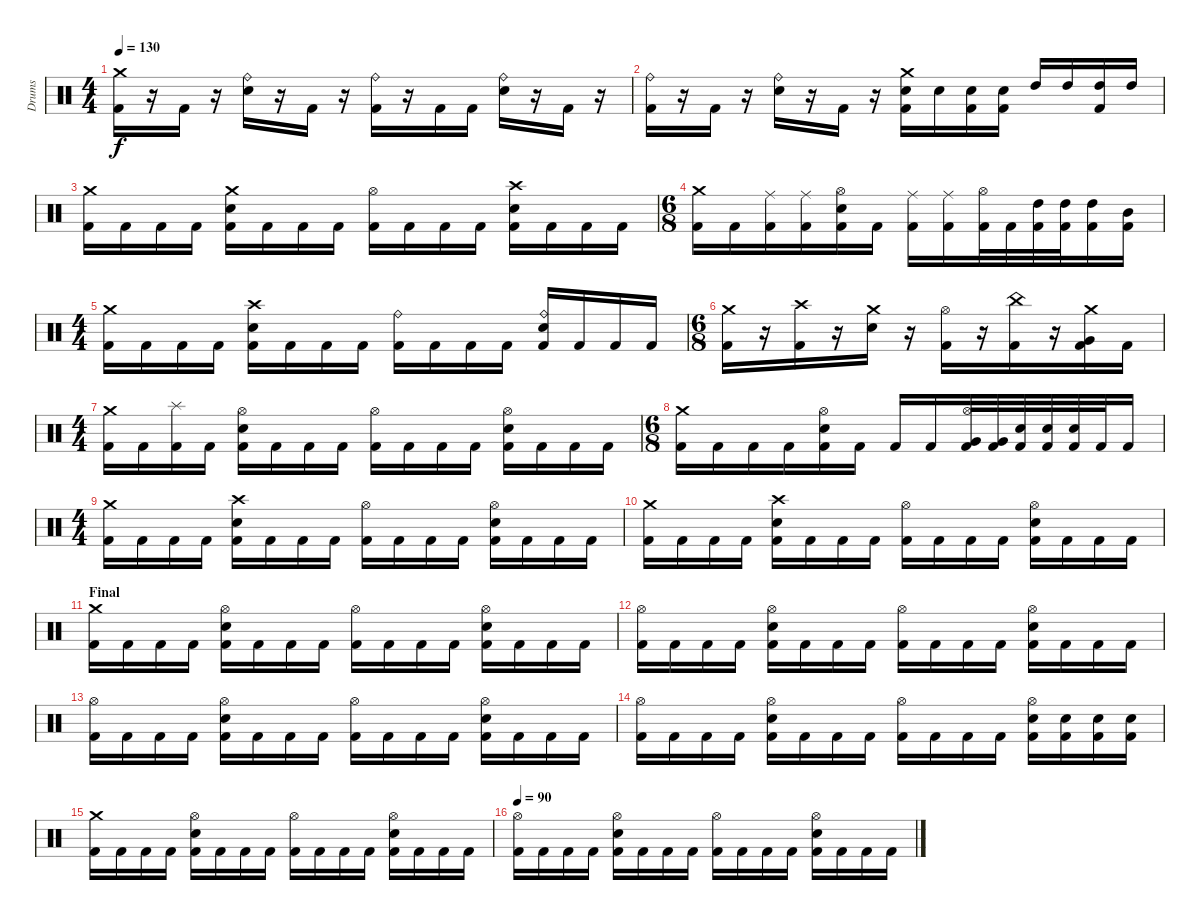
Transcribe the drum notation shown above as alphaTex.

\track ("Drums" "Drums") {instrument percussion}
\staff {score}
\articulation defaults
\ts (4 4)
\tempo 130
\clef neutral
\ks c
("Crash medium (hit)" "Kick (hit) 2").16{dy f} r.16 "Kick (hit) 2".16 r.16 ("Ride (bell)" "Electric Snare (hit)").16 r.16 "Kick (hit) 2".16 r.16 ("Ride (bell)" "Kick (hit) 2").16 r.16 "Kick (hit) 2".16 "Kick (hit) 2".16 ("Ride (bell)" "Electric Snare (hit)").16 r.16 "Kick (hit) 2".16 r.16 |
("Ride (bell)" "Kick (hit) 2").16 r.16 "Kick (hit) 2".16 r.16 ("Ride (bell)" "Electric Snare (hit)").16 r.16 "Kick (hit) 2".16 r.16 ("Crash medium (hit)" "Electric Snare (hit)" "Kick (hit) 2").16 "Electric Snare (hit)".16 ("Electric Snare (hit)" "Kick (hit) 2").16 ("Electric Snare (hit)" "Kick (hit) 2").16 "High Tom (hit)".16 "High Tom (hit)".16 ("High Tom (hit)" "Kick (hit) 2").16 "High Tom (hit)".16 |
("Crash medium (hit)" "Kick (hit) 2").16 "Kick (hit) 2".16 "Kick (hit) 2".16 "Kick (hit) 2".16 ("Crash medium (hit)" "Electric Snare (hit)" "Kick (hit) 2").16 "Kick (hit) 2".16 "Kick (hit) 2".16 "Kick (hit) 2".16 ("Hi-Hat (open)" "Kick (hit) 2").16 "Kick (hit) 2".16 "Kick (hit) 2".16 "Kick (hit) 2".16 ("Crash high (hit)" "Electric Snare (hit)" "Kick (hit) 2").16 "Kick (hit) 2".16 "Kick (hit) 2".16 "Kick (hit) 2".16 |
\ts (6 8)
("Crash medium (hit)" "Kick (hit) 2").16 "Kick (hit) 2".16 ("Ride (middle)" "Kick (hit) 2").16 ("Ride (middle)" "Kick (hit) 2").16 ("Hi-Hat (open)" "Electric Snare (hit)" "Kick (hit) 2").16 "Kick (hit) 2".16 ("Ride (middle)" "Kick (hit) 2").16 ("Ride (middle)" "Kick (hit) 2").16 ("Hi-Hat (open)" "Kick (hit) 2").32 "Kick (hit) 2".32 ("High Tom (hit)" "Kick (hit) 2").32 ("High Tom (hit)" "Kick (hit) 2").32 ("High Tom (hit)" "Kick (hit) 2").16 ("Mid Tom (hit)" "Kick (hit) 2").16 |
\ts (4 4)
("Crash medium (hit)" "Kick (hit) 2").16 "Kick (hit) 2".16 "Kick (hit) 2".16 "Kick (hit) 2".16 ("Crash high (hit)" "Electric Snare (hit)" "Kick (hit) 2").16 "Kick (hit) 2".16 "Kick (hit) 2".16 "Kick (hit) 2".16 ("Ride (bell)" "Kick (hit) 2").16 "Kick (hit) 2".16 "Kick (hit) 2".16 "Kick (hit) 2".16 ("Ride (bell)" "Electric Snare (hit)" "Kick (hit) 2").16 "Kick (hit) 2".16 "Kick (hit) 2".16 "Kick (hit) 2".16 |
\ts (6 8)
("Crash medium (hit)" "Kick (hit) 2").16 r.16 ("Crash high (hit)" "Kick (hit) 2").16 r.16 ("Crash medium (hit)" "Electric Snare (hit)").16 r.16 ("Hi-Hat (open)" "Kick (hit) 2").16 r.16 ("China (hit)" "Kick (hit) 2").16 r.16 ("Crash medium (hit)" "Very Low Tom (hit)" "Kick (hit) 2").16 "Kick (hit) 2".16 |
\ts (4 4)
("Crash medium (hit)" "Kick (hit) 2").16 "Kick (hit) 2".16 ("Splash (hit)" "Kick (hit) 2").16 "Kick (hit) 2".16 ("Hi-Hat (open)" "Electric Snare (hit)" "Kick (hit) 2").16 "Kick (hit) 2".16 "Kick (hit) 2".16 "Kick (hit) 2".16 ("Hi-Hat (open)" "Kick (hit) 2").16 "Kick (hit) 2".16 "Kick (hit) 2".16 "Kick (hit) 2".16 ("Hi-Hat (open)" "Electric Snare (hit)" "Kick (hit) 2").16 "Kick (hit) 2".16 "Kick (hit) 2".16 "Kick (hit) 2".16 |
\ts (6 8)
("Crash medium (hit)" "Kick (hit) 2").16 "Kick (hit) 2".16 "Kick (hit) 2".16 "Kick (hit) 2".16 ("Hi-Hat (open)" "Electric Snare (hit)" "Kick (hit) 2").16 "Kick (hit) 2".16 "Kick (hit) 2".16 "Kick (hit) 2".16 ("Hi-Hat (open)" "Very Low Tom (hit)" "Kick (hit) 2").32 ("Very Low Tom (hit)" "Kick (hit) 2").32 ("Electric Snare (hit)" "Kick (hit) 2").32 ("Electric Snare (hit)" "Kick (hit) 2").32 ("Electric Snare (hit)" "Kick (hit) 2").32 "Kick (hit) 2".32 "Kick (hit) 2".16 |
\ts (4 4)
("Crash medium (hit)" "Kick (hit) 2").16 "Kick (hit) 2".16 "Kick (hit) 2".16 "Kick (hit) 2".16 ("Crash high (hit)" "Electric Snare (hit)" "Kick (hit) 2").16 "Kick (hit) 2".16 "Kick (hit) 2".16 "Kick (hit) 2".16 ("Hi-Hat (open)" "Kick (hit) 2").16 "Kick (hit) 2".16 "Kick (hit) 2".16 "Kick (hit) 2".16 ("Hi-Hat (open)" "Electric Snare (hit)" "Kick (hit) 2").16 "Kick (hit) 2".16 "Kick (hit) 2".16 "Kick (hit) 2".16 |
("Crash medium (hit)" "Kick (hit) 2").16 "Kick (hit) 2".16 "Kick (hit) 2".16 "Kick (hit) 2".16 ("Crash high (hit)" "Electric Snare (hit)" "Kick (hit) 2").16 "Kick (hit) 2".16 "Kick (hit) 2".16 "Kick (hit) 2".16 ("Hi-Hat (open)" "Kick (hit) 2").16 "Kick (hit) 2".16 "Kick (hit) 2".16 "Kick (hit) 2".16 ("Hi-Hat (open)" "Electric Snare (hit)" "Kick (hit) 2").16 "Kick (hit) 2".16 "Kick (hit) 2".16 "Kick (hit) 2".16 |
\section ("" "Final ")
("Crash medium (hit)" "Kick (hit) 2").16 "Kick (hit) 2".16 "Kick (hit) 2".16 "Kick (hit) 2".16 ("Hi-Hat (open)" "Electric Snare (hit)" "Kick (hit) 2").16 "Kick (hit) 2".16 "Kick (hit) 2".16 "Kick (hit) 2".16 ("Hi-Hat (open)" "Kick (hit) 2").16 "Kick (hit) 2".16 "Kick (hit) 2".16 "Kick (hit) 2".16 ("Hi-Hat (open)" "Electric Snare (hit)" "Kick (hit) 2").16 "Kick (hit) 2".16 "Kick (hit) 2".16 "Kick (hit) 2".16 |
("Hi-Hat (open)" "Kick (hit) 2").16 "Kick (hit) 2".16 "Kick (hit) 2".16 "Kick (hit) 2".16 ("Hi-Hat (open)" "Electric Snare (hit)" "Kick (hit) 2").16 "Kick (hit) 2".16 "Kick (hit) 2".16 "Kick (hit) 2".16 ("Hi-Hat (open)" "Kick (hit) 2").16 "Kick (hit) 2".16 "Kick (hit) 2".16 "Kick (hit) 2".16 ("Hi-Hat (open)" "Electric Snare (hit)" "Kick (hit) 2").16 "Kick (hit) 2".16 "Kick (hit) 2".16 "Kick (hit) 2".16 |
("Hi-Hat (open)" "Kick (hit) 2").16 "Kick (hit) 2".16 "Kick (hit) 2".16 "Kick (hit) 2".16 ("Hi-Hat (open)" "Electric Snare (hit)" "Kick (hit) 2").16 "Kick (hit) 2".16 "Kick (hit) 2".16 "Kick (hit) 2".16 ("Hi-Hat (open)" "Kick (hit) 2").16 "Kick (hit) 2".16 "Kick (hit) 2".16 "Kick (hit) 2".16 ("Hi-Hat (open)" "Electric Snare (hit)" "Kick (hit) 2").16 "Kick (hit) 2".16 "Kick (hit) 2".16 "Kick (hit) 2".16 |
("Hi-Hat (open)" "Kick (hit) 2").16 "Kick (hit) 2".16 "Kick (hit) 2".16 "Kick (hit) 2".16 ("Hi-Hat (open)" "Electric Snare (hit)" "Kick (hit) 2").16 "Kick (hit) 2".16 "Kick (hit) 2".16 "Kick (hit) 2".16 ("Hi-Hat (open)" "Kick (hit) 2").16 "Kick (hit) 2".16 "Kick (hit) 2".16 "Kick (hit) 2".16 ("Hi-Hat (open)" "Electric Snare (hit)" "Kick (hit) 2").16 ("Electric Snare (hit)" "Kick (hit) 2").16 ("Electric Snare (hit)" "Kick (hit) 2").16 ("Electric Snare (hit)" "Kick (hit) 2").16 |
("Crash medium (hit)" "Kick (hit) 2").16 "Kick (hit) 2".16 "Kick (hit) 2".16 "Kick (hit) 2".16 ("Hi-Hat (open)" "Electric Snare (hit)" "Kick (hit) 2").16 "Kick (hit) 2".16 "Kick (hit) 2".16 "Kick (hit) 2".16 ("Hi-Hat (open)" "Kick (hit) 2").16 "Kick (hit) 2".16 "Kick (hit) 2".16 "Kick (hit) 2".16 ("Hi-Hat (open)" "Electric Snare (hit)" "Kick (hit) 2").16 "Kick (hit) 2".16 "Kick (hit) 2".16 "Kick (hit) 2".16 |
\tempo 90
("Hi-Hat (open)" "Kick (hit) 2").16 "Kick (hit) 2".16 "Kick (hit) 2".16 "Kick (hit) 2".16 ("Hi-Hat (open)" "Electric Snare (hit)" "Kick (hit) 2").16 "Kick (hit) 2".16 "Kick (hit) 2".16 "Kick (hit) 2".16 ("Hi-Hat (open)" "Kick (hit) 2").16 "Kick (hit) 2".16 "Kick (hit) 2".16 "Kick (hit) 2".16 ("Hi-Hat (open)" "Electric Snare (hit)" "Kick (hit) 2").16 "Kick (hit) 2".16 "Kick (hit) 2".16 "Kick (hit) 2".16
